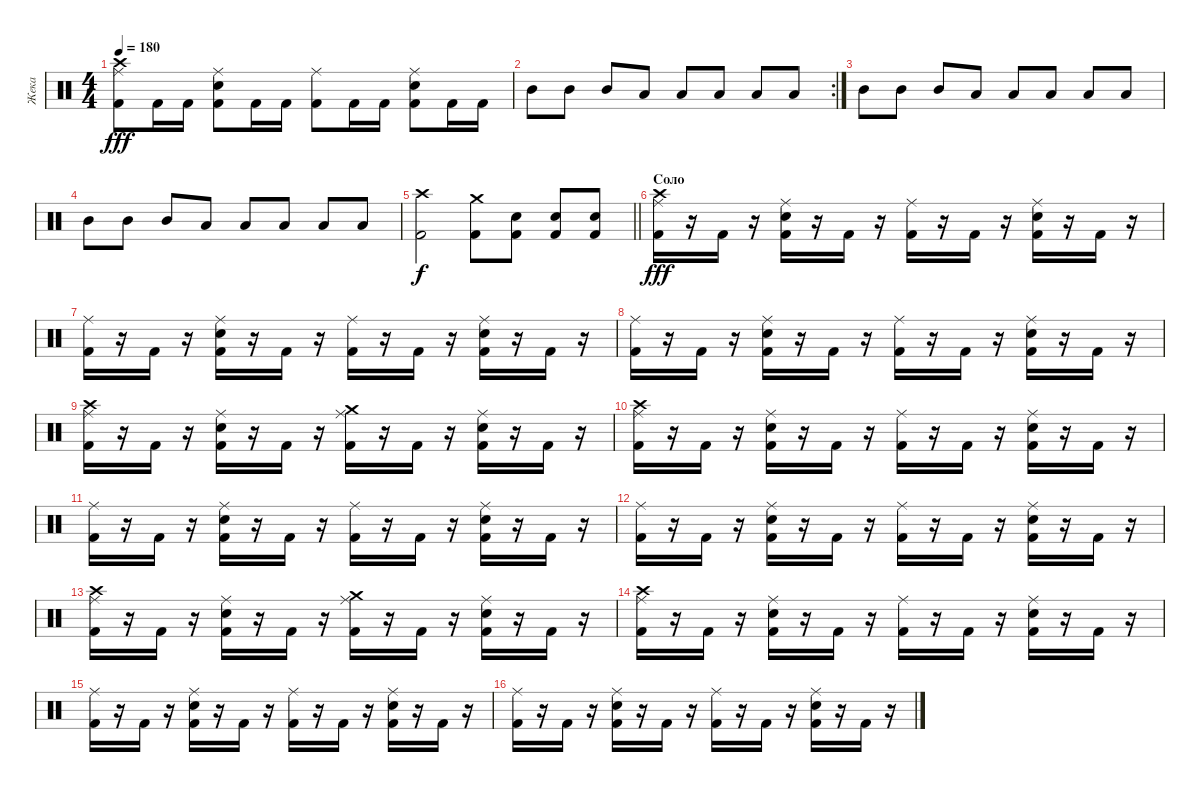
\track ("Жека" "Жека") {instrument percussion}
\staff {score}
\articulation defaults
\ts (4 4)
\tempo 180
\clef neutral
\ks c
("Ride (middle)" "Kick (hit) 2" "Crash high (hit)").8{dy fff} "Kick (hit) 2".16 "Kick (hit) 2".16 ("Ride (middle)" "Kick (hit) 2" "Snare (hit) 2").8 "Kick (hit) 2".16 "Kick (hit) 2".16 ("Ride (middle)" "Kick (hit) 2").8 "Kick (hit) 2".16 "Kick (hit) 2".16 ("Ride (middle)" "Kick (hit) 2" "Snare (hit) 2").8 "Kick (hit) 2".16 "Kick (hit) 2".16 |
\rc 2 "Mid Tom (hit)".8 "Mid Tom (hit)".8 "Mid Tom (hit)".8 "Low Tom (hit)".8 "Low Tom (hit)".8 "Low Floor Tom (hit)".8 "Low Floor Tom (hit)".8 "Low Floor Tom (hit)".8
|
"Mid Tom (hit)".8 "Mid Tom (hit)".8 "Mid Tom (hit)".8 "Low Tom (hit)".8 "Low Tom (hit)".8 "Low Floor Tom (hit)".8 "Low Floor Tom (hit)".8 "Low Floor Tom (hit)".8 |
"Mid Tom (hit)".8 "Mid Tom (hit)".8 "Mid Tom (hit)".8 "Low Tom (hit)".8 "Low Tom (hit)".8 "Low Floor Tom (hit)".8 "Low Floor Tom (hit)".8 "Low Floor Tom (hit)".8 |
\barLineRight lightlight
("Kick (hit) 2" "Crash high (hit)").2{dy f} ("Crash medium (hit)" "Kick (hit) 2").8 ("Snare (hit) 2" "Kick (hit) 2").8 ("Snare (hit) 2" "Kick (hit) 2").8 ("Snare (hit) 2" "Kick (hit) 2").8 |
\section ("" "Соло")
("Kick (hit) 2" "Ride (middle)" "Crash high (hit)").16{dy fff} r.16 "Kick (hit) 2".16 r.16 ("Kick (hit) 2" "Snare (hit) 2" "Ride (middle)").16 r.16 "Kick (hit) 2".16 r.16 ("Kick (hit) 2" "Ride (middle)").16 r.16 "Kick (hit) 2".16 r.16 ("Kick (hit) 2" "Snare (hit) 2" "Ride (middle)").16 r.16 "Kick (hit) 2".16 r.16 |
("Kick (hit) 2" "Ride (middle)").16 r.16 "Kick (hit) 2".16 r.16 ("Kick (hit) 2" "Snare (hit) 2" "Ride (middle)").16 r.16 "Kick (hit) 2".16 r.16 ("Kick (hit) 2" "Ride (middle)").16 r.16 "Kick (hit) 2".16 r.16 ("Kick (hit) 2" "Snare (hit) 2" "Ride (middle)").16 r.16 "Kick (hit) 2".16 r.16 |
("Kick (hit) 2" "Ride (middle)").16 r.16 "Kick (hit) 2".16 r.16 ("Kick (hit) 2" "Snare (hit) 2" "Ride (middle)").16 r.16 "Kick (hit) 2".16 r.16 ("Kick (hit) 2" "Ride (middle)").16 r.16 "Kick (hit) 2".16 r.16 ("Kick (hit) 2" "Snare (hit) 2" "Ride (middle)").16 r.16 "Kick (hit) 2".16 r.16 |
("Kick (hit) 2" "Ride (middle)" "Crash high (hit)").16 r.16 "Kick (hit) 2".16 r.16 ("Kick (hit) 2" "Snare (hit) 2" "Ride (middle)").16 r.16 "Kick (hit) 2".16 r.16 ("Kick (hit) 2" "Ride (middle)" "Crash medium (hit)").16 r.16 "Kick (hit) 2".16 r.16 ("Kick (hit) 2" "Snare (hit) 2" "Ride (middle)").16 r.16 "Kick (hit) 2".16 r.16 |
("Kick (hit) 2" "Ride (middle)" "Crash high (hit)").16 r.16 "Kick (hit) 2".16 r.16 ("Kick (hit) 2" "Snare (hit) 2" "Ride (middle)").16 r.16 "Kick (hit) 2".16 r.16 ("Kick (hit) 2" "Ride (middle)").16 r.16 "Kick (hit) 2".16 r.16 ("Kick (hit) 2" "Snare (hit) 2" "Ride (middle)").16 r.16 "Kick (hit) 2".16 r.16 |
("Kick (hit) 2" "Ride (middle)").16 r.16 "Kick (hit) 2".16 r.16 ("Kick (hit) 2" "Snare (hit) 2" "Ride (middle)").16 r.16 "Kick (hit) 2".16 r.16 ("Kick (hit) 2" "Ride (middle)").16 r.16 "Kick (hit) 2".16 r.16 ("Kick (hit) 2" "Snare (hit) 2" "Ride (middle)").16 r.16 "Kick (hit) 2".16 r.16 |
("Kick (hit) 2" "Ride (middle)").16 r.16 "Kick (hit) 2".16 r.16 ("Kick (hit) 2" "Snare (hit) 2" "Ride (middle)").16 r.16 "Kick (hit) 2".16 r.16 ("Kick (hit) 2" "Ride (middle)").16 r.16 "Kick (hit) 2".16 r.16 ("Kick (hit) 2" "Snare (hit) 2" "Ride (middle)").16 r.16 "Kick (hit) 2".16 r.16 |
("Kick (hit) 2" "Ride (middle)" "Crash high (hit)").16 r.16 "Kick (hit) 2".16 r.16 ("Kick (hit) 2" "Snare (hit) 2" "Ride (middle)").16 r.16 "Kick (hit) 2".16 r.16 ("Kick (hit) 2" "Ride (middle)" "Crash medium (hit)").16 r.16 "Kick (hit) 2".16 r.16 ("Kick (hit) 2" "Snare (hit) 2" "Ride (middle)").16 r.16 "Kick (hit) 2".16 r.16 |
("Kick (hit) 2" "Ride (middle)" "Crash high (hit)").16 r.16 "Kick (hit) 2".16 r.16 ("Kick (hit) 2" "Snare (hit) 2" "Ride (middle)").16 r.16 "Kick (hit) 2".16 r.16 ("Kick (hit) 2" "Ride (middle)").16 r.16 "Kick (hit) 2".16 r.16 ("Kick (hit) 2" "Snare (hit) 2" "Ride (middle)").16 r.16 "Kick (hit) 2".16 r.16 |
("Kick (hit) 2" "Ride (middle)").16 r.16 "Kick (hit) 2".16 r.16 ("Kick (hit) 2" "Snare (hit) 2" "Ride (middle)").16 r.16 "Kick (hit) 2".16 r.16 ("Kick (hit) 2" "Ride (middle)").16 r.16 "Kick (hit) 2".16 r.16 ("Kick (hit) 2" "Snare (hit) 2" "Ride (middle)").16 r.16 "Kick (hit) 2".16 r.16 |
("Kick (hit) 2" "Ride (middle)").16 r.16 "Kick (hit) 2".16 r.16 ("Kick (hit) 2" "Snare (hit) 2" "Ride (middle)").16 r.16 "Kick (hit) 2".16 r.16 ("Kick (hit) 2" "Ride (middle)").16 r.16 "Kick (hit) 2".16 r.16 ("Kick (hit) 2" "Snare (hit) 2" "Ride (middle)").16 r.16 "Kick (hit) 2".16 r.16
